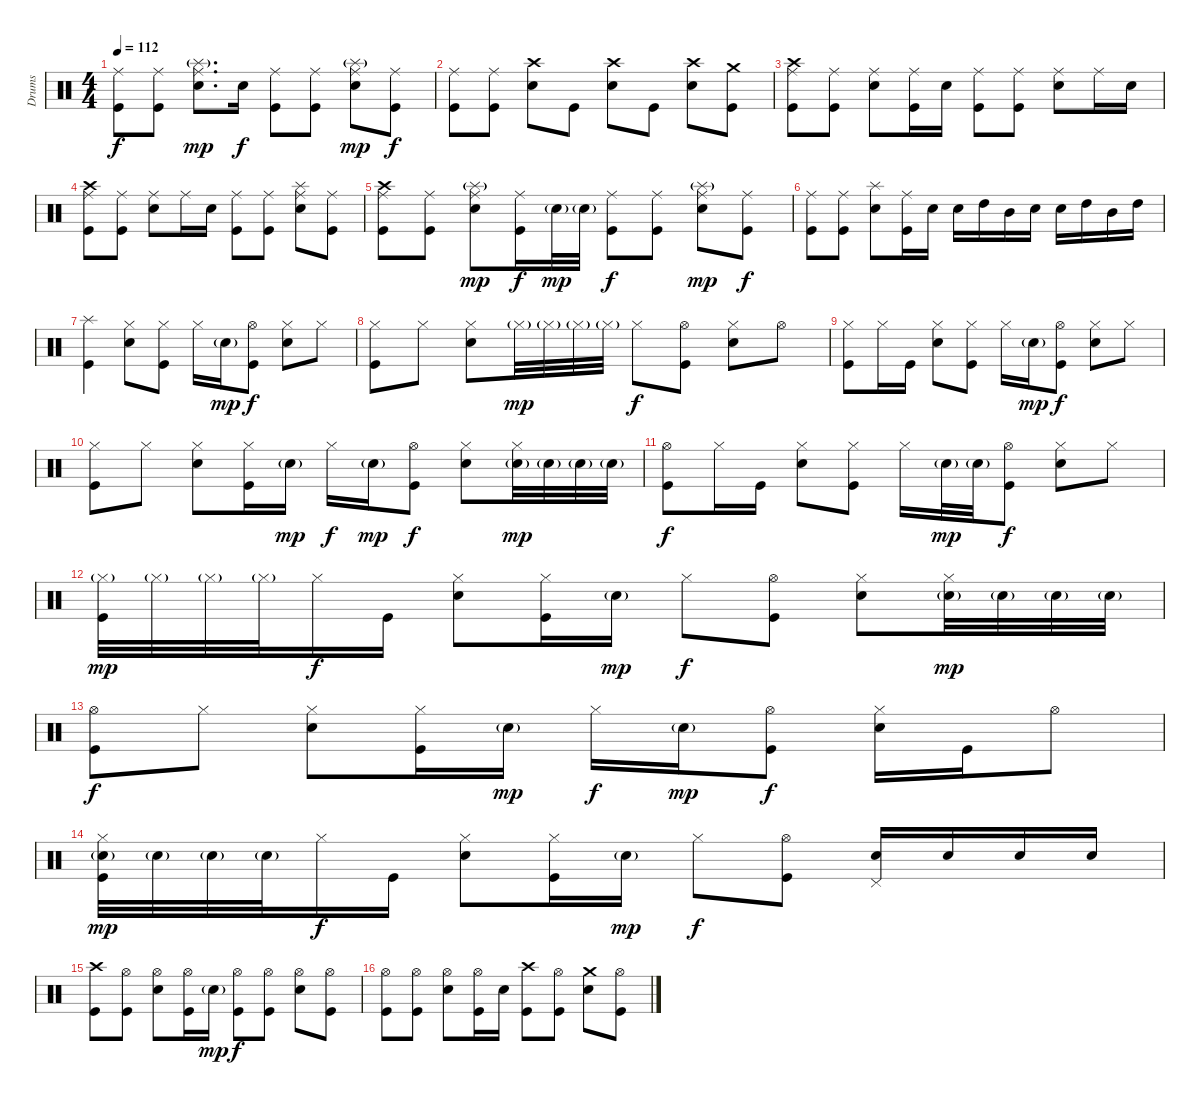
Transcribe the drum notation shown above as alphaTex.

\track ("Drums" "Drums") {instrument percussion}
\staff {score}
\articulation defaults
\ts (4 4)
\tempo 112
\clef neutral
\ks c
("Ride (middle)" "Kick (hit)").8{dy f} ("Ride (middle)" "Kick (hit)").8 ("Splash (hit)"{g} "Ride (middle)" "Electric Snare (hit)").8{d dy mp} "Electric Snare (hit)".16{dy f} ("Ride (middle)" "Kick (hit)").8 ("Ride (middle)" "Kick (hit)").8 ("Splash (hit)"{g} "Ride (middle)" "Electric Snare (hit)").8{dy mp} ("Ride (middle)" "Kick (hit)").8{dy f} |
("Ride (middle)" "Kick (hit)").8 ("Ride (middle)" "Kick (hit)").8 ("Crash high (hit)" "Electric Snare (hit)").8 "Kick (hit)".8 ("Crash high (hit)" "Electric Snare (hit)").8 "Kick (hit)".8 ("Crash high (hit)" "Electric Snare (hit)").8 ("Crash medium (hit)" "Kick (hit)").8 |
("Crash high (hit)" "Ride (middle)" "Kick (hit)").8 ("Ride (middle)" "Kick (hit)").8 ("Ride (middle)" "Electric Snare (hit)").8 ("Ride (middle)" "Kick (hit)").16 "Electric Snare (hit)".16 ("Ride (middle)" "Kick (hit)").8 ("Ride (middle)" "Kick (hit)").8 ("Ride (middle)" "Electric Snare (hit)").8 "Ride (middle)".16 "Electric Snare (hit)".16 |
("Crash high (hit)" "Ride (middle)" "Kick (hit)").8 ("Ride (middle)" "Kick (hit)").8 ("Ride (middle)" "Electric Snare (hit)").8 "Ride (middle)".16 "Electric Snare (hit)".16 ("Ride (middle)" "Kick (hit)").8 ("Ride (middle)" "Kick (hit)").8 ("Splash (hit)" "Ride (middle)" "Electric Snare (hit)").8 ("Ride (middle)" "Kick (hit)").8 |
("Crash high (hit)" "Ride (middle)" "Kick (hit)").8 ("Ride (middle)" "Kick (hit)").8 ("Splash (hit)"{g} "Ride (middle)" "Electric Snare (hit)").8{dy mp} ("Ride (middle)" "Kick (hit)").16{dy f} "Electric Snare (hit)"{g}.32{dy mp} "Electric Snare (hit)"{g}.32 ("Ride (middle)" "Kick (hit)").8{dy f} ("Ride (middle)" "Kick (hit)").8 ("Splash (hit)"{g} "Ride (middle)" "Electric Snare (hit)").8{dy mp} ("Ride (middle)" "Kick (hit)").8{dy f} |
("Ride (middle)" "Kick (hit)").8 ("Ride (middle)" "Kick (hit)").8 ("Splash (hit)" "Electric Snare (hit)").8 ("Ride (middle)" "Kick (hit)").16 "Electric Snare (hit)".16 "Electric Snare (hit)".16 "High Tom (hit)".16 "Mid Tom (hit)".16 "Electric Snare (hit)".16 "Electric Snare (hit)".16 "High Tom (hit)".16 "Mid Tom (hit)".16 "High Tom (hit)".16 |
("Splash (hit)" "Kick (hit)").4 ("Hi-Hat (closed)" "Electric Snare (hit)").8 ("Hi-Hat (closed)" "Kick (hit)").8 "Hi-Hat (closed)".16 "Electric Snare (hit)"{g}.16{dy mp} ("Hi-Hat (open)" "Kick (hit)").8{dy f} ("Hi-Hat (closed)" "Electric Snare (hit)").8 "Hi-Hat (closed)".8 |
("Hi-Hat (closed)" "Kick (hit)").8 "Hi-Hat (closed)".8 ("Hi-Hat (closed)" "Electric Snare (hit)").8 "Hi-Hat (closed)"{g}.32{dy mp} "Hi-Hat (closed)"{g}.32 "Hi-Hat (closed)"{g}.32 "Hi-Hat (closed)"{g}.32 "Hi-Hat (closed)".8{dy f} ("Hi-Hat (open)" "Kick (hit)").8 ("Hi-Hat (closed)" "Electric Snare (hit)").8 "Hi-Hat (open)".8 |
("Hi-Hat (closed)" "Kick (hit)").8 "Hi-Hat (closed)".16 "Kick (hit)".16 ("Hi-Hat (closed)" "Electric Snare (hit)").8 ("Hi-Hat (closed)" "Kick (hit)").8 "Hi-Hat (closed)".16 "Electric Snare (hit)"{g}.16{dy mp} ("Hi-Hat (open)" "Kick (hit)").8{dy f} ("Hi-Hat (closed)" "Electric Snare (hit)").8 "Hi-Hat (closed)".8 |
("Hi-Hat (closed)" "Kick (hit)").8 "Hi-Hat (closed)".8 ("Hi-Hat (closed)" "Electric Snare (hit)").8 ("Hi-Hat (closed)" "Kick (hit)").16 "Electric Snare (hit)"{g}.16{dy mp} "Hi-Hat (closed)".16{dy f} "Electric Snare (hit)"{g}.16{dy mp} ("Hi-Hat (open)" "Kick (hit)").8{dy f} ("Hi-Hat (closed)" "Electric Snare (hit)").8 ("Hi-Hat (closed)" "Electric Snare (hit)"{g}).32{dy mp} "Electric Snare (hit)"{g}.32 "Electric Snare (hit)"{g}.32 "Electric Snare (hit)"{g}.32 |
("Hi-Hat (open)" "Kick (hit)").8{dy f} "Hi-Hat (closed)".16 "Kick (hit)".16 ("Hi-Hat (closed)" "Electric Snare (hit)").8 ("Hi-Hat (closed)" "Kick (hit)").8 "Hi-Hat (closed)".16 "Electric Snare (hit)"{g}.32{dy mp} "Electric Snare (hit)"{g}.32 ("Hi-Hat (open)" "Kick (hit)").8{dy f} ("Hi-Hat (closed)" "Electric Snare (hit)").8 "Hi-Hat (closed)".8 |
("Hi-Hat (closed)"{g} "Kick (hit)").32{dy mp} "Hi-Hat (closed)"{g}.32 "Hi-Hat (closed)"{g}.32 "Hi-Hat (closed)"{g}.32 "Hi-Hat (closed)".16{dy f} "Kick (hit)".16 ("Hi-Hat (closed)" "Electric Snare (hit)").8 ("Hi-Hat (closed)" "Kick (hit)").16 "Electric Snare (hit)"{g}.16{dy mp} "Hi-Hat (closed)".8{dy f} ("Hi-Hat (open)" "Kick (hit)").8 ("Hi-Hat (closed)" "Electric Snare (hit)").8 ("Hi-Hat (closed)" "Electric Snare (hit)"{g}).32{dy mp} "Electric Snare (hit)"{g}.32 "Electric Snare (hit)"{g}.32 "Electric Snare (hit)"{g}.32 |
("Hi-Hat (open)" "Kick (hit)").8{dy f} "Hi-Hat (closed)".8 ("Hi-Hat (closed)" "Electric Snare (hit)").8 ("Hi-Hat (closed)" "Kick (hit)").16 "Electric Snare (hit)"{g}.16{dy mp} "Hi-Hat (closed)".16{dy f} "Electric Snare (hit)"{g}.16{dy mp} ("Hi-Hat (open)" "Kick (hit)").8{dy f} ("Hi-Hat (closed)" "Electric Snare (hit)").16 "Kick (hit)".16 "Hi-Hat (open)".8 |
("Hi-Hat (closed)" "Electric Snare (hit)"{g} "Kick (hit)").32{dy mp} "Electric Snare (hit)"{g}.32 "Electric Snare (hit)"{g}.32 "Electric Snare (hit)"{g}.32 "Hi-Hat (closed)".16{dy f} "Kick (hit)".16 ("Hi-Hat (closed)" "Electric Snare (hit)").8 ("Hi-Hat (closed)" "Kick (hit)").16 "Electric Snare (hit)"{g}.16{dy mp} "Hi-Hat (closed)".8{dy f} ("Hi-Hat (open)" "Kick (hit)").8 ("Pedal Hi-Hat (hit)" "Electric Snare (hit)").16 "Electric Snare (hit)".16 "Electric Snare (hit)".16 "Electric Snare (hit)".16 |
("Crash high (hit)" "Kick (hit)").8 ("Hi-Hat (open)" "Kick (hit)").8 ("Hi-Hat (open)" "Electric Snare (hit)").8 ("Hi-Hat (open)" "Kick (hit)").16 "Electric Snare (hit)"{g}.16{dy mp} ("Hi-Hat (open)" "Kick (hit)").8{dy f} ("Hi-Hat (open)" "Kick (hit)").8 ("Hi-Hat (open)" "Electric Snare (hit)").8 ("Hi-Hat (open)" "Kick (hit)").8 |
("Hi-Hat (open)" "Kick (hit)").8 ("Hi-Hat (open)" "Kick (hit)").8 ("Hi-Hat (open)" "Electric Snare (hit)").8 ("Hi-Hat (open)" "Kick (hit)").16 "Electric Snare (hit)".16 ("Crash high (hit)" "Kick (hit)").8 ("Hi-Hat (open)" "Kick (hit)").8 ("Crash medium (hit)" "Electric Snare (hit)").8 ("Hi-Hat (open)" "Kick (hit)").8
